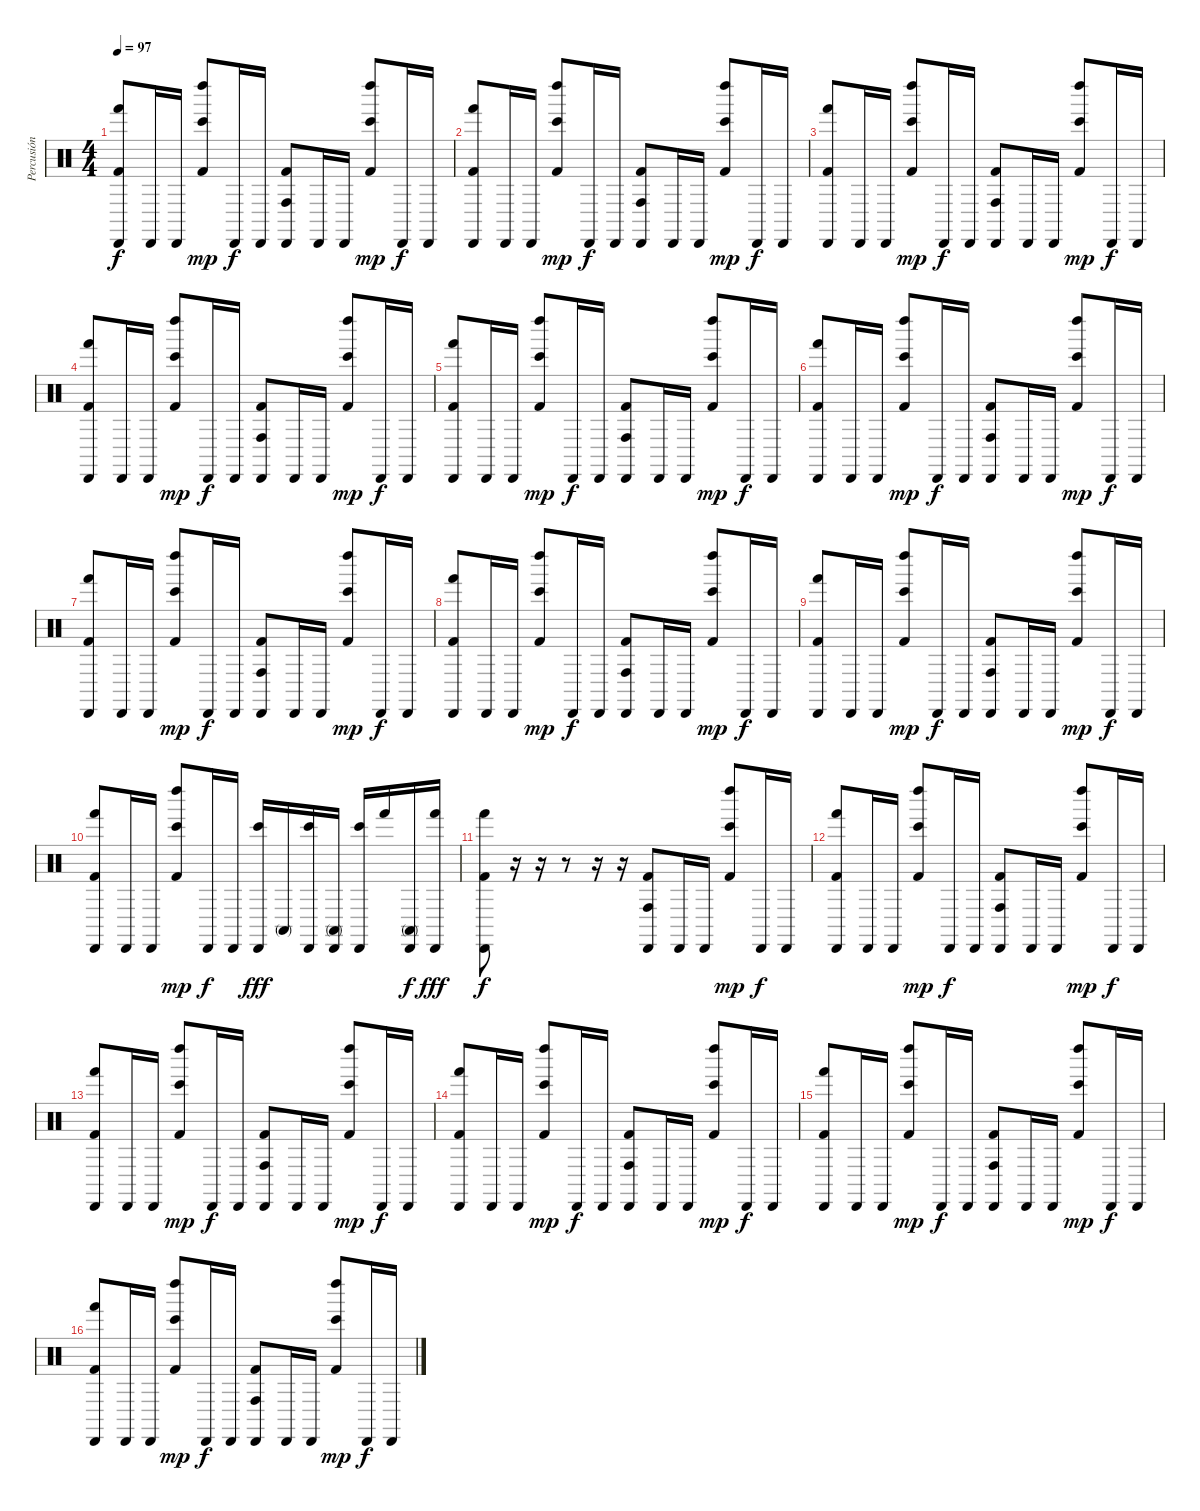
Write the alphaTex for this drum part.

\track ("Percusión" "Percusión") {instrument percussion}
\staff {score}
\articulation defaults
\ts (4 4)
\tempo 97
\clef neutral
\ks c
("Hand (hit)" "Cabasa (hit)" "Kick (hit) 2").8{dy f} "Cabasa (hit)".16 "Cabasa (hit)".16 ("Bongo High (hit)" "Kick (hit) 2" "Left Maraca (hit)").8{dy mp} "Cabasa (hit)".16{dy f} "Cabasa (hit)".16 ("Conga high (hit)" "Cabasa (hit)" "Kick (hit) 2").8 "Cabasa (hit)".16 "Cabasa (hit)".16 ("Bongo High (hit)" "Kick (hit) 2" "Left Maraca (hit)").8{dy mp} "Cabasa (hit)".16{dy f} "Cabasa (hit)".16 |
("Hand (hit)" "Cabasa (hit)" "Kick (hit) 2").8 "Cabasa (hit)".16 "Cabasa (hit)".16 ("Bongo High (hit)" "Kick (hit) 2" "Left Maraca (hit)").8{dy mp} "Cabasa (hit)".16{dy f} "Cabasa (hit)".16 ("Conga high (hit)" "Cabasa (hit)" "Kick (hit) 2").8 "Cabasa (hit)".16 "Cabasa (hit)".16 ("Bongo High (hit)" "Kick (hit) 2" "Left Maraca (hit)").8{dy mp} "Cabasa (hit)".16{dy f} "Cabasa (hit)".16 |
("Hand (hit)" "Cabasa (hit)" "Kick (hit) 2").8 "Cabasa (hit)".16 "Cabasa (hit)".16 ("Bongo High (hit)" "Kick (hit) 2" "Left Maraca (hit)").8{dy mp} "Cabasa (hit)".16{dy f} "Cabasa (hit)".16 ("Conga high (hit)" "Cabasa (hit)" "Kick (hit) 2").8 "Cabasa (hit)".16 "Cabasa (hit)".16 ("Bongo High (hit)" "Kick (hit) 2" "Left Maraca (hit)").8{dy mp} "Cabasa (hit)".16{dy f} "Cabasa (hit)".16 |
("Hand (hit)" "Cabasa (hit)" "Kick (hit) 2").8 "Cabasa (hit)".16 "Cabasa (hit)".16 ("Bongo High (hit)" "Kick (hit) 2" "Left Maraca (hit)").8{dy mp} "Cabasa (hit)".16{dy f} "Cabasa (hit)".16 ("Conga high (hit)" "Cabasa (hit)" "Kick (hit) 2").8 "Cabasa (hit)".16 "Cabasa (hit)".16 ("Bongo High (hit)" "Kick (hit) 2" "Left Maraca (hit)").8{dy mp} "Cabasa (hit)".16{dy f} "Cabasa (hit)".16 |
("Hand (hit)" "Cabasa (hit)" "Kick (hit) 2").8 "Cabasa (hit)".16 "Cabasa (hit)".16 ("Bongo High (hit)" "Kick (hit) 2" "Left Maraca (hit)").8{dy mp} "Cabasa (hit)".16{dy f} "Cabasa (hit)".16 ("Conga high (hit)" "Cabasa (hit)" "Kick (hit) 2").8 "Cabasa (hit)".16 "Cabasa (hit)".16 ("Bongo High (hit)" "Kick (hit) 2" "Left Maraca (hit)").8{dy mp} "Cabasa (hit)".16{dy f} "Cabasa (hit)".16 |
("Hand (hit)" "Cabasa (hit)" "Kick (hit) 2").8 "Cabasa (hit)".16 "Cabasa (hit)".16 ("Bongo High (hit)" "Kick (hit) 2" "Left Maraca (hit)").8{dy mp} "Cabasa (hit)".16{dy f} "Cabasa (hit)".16 ("Conga high (hit)" "Cabasa (hit)" "Kick (hit) 2").8 "Cabasa (hit)".16 "Cabasa (hit)".16 ("Bongo High (hit)" "Kick (hit) 2" "Left Maraca (hit)").8{dy mp} "Cabasa (hit)".16{dy f} "Cabasa (hit)".16 |
("Hand (hit)" "Cabasa (hit)" "Kick (hit) 2").8 "Cabasa (hit)".16 "Cabasa (hit)".16 ("Bongo High (hit)" "Kick (hit) 2" "Left Maraca (hit)").8{dy mp} "Cabasa (hit)".16{dy f} "Cabasa (hit)".16 ("Conga high (hit)" "Cabasa (hit)" "Kick (hit) 2").8 "Cabasa (hit)".16 "Cabasa (hit)".16 ("Bongo High (hit)" "Kick (hit) 2" "Left Maraca (hit)").8{dy mp} "Cabasa (hit)".16{dy f} "Cabasa (hit)".16 |
("Hand (hit)" "Cabasa (hit)" "Kick (hit) 2").8 "Cabasa (hit)".16 "Cabasa (hit)".16 ("Bongo High (hit)" "Kick (hit) 2" "Left Maraca (hit)").8{dy mp} "Cabasa (hit)".16{dy f} "Cabasa (hit)".16 ("Conga high (hit)" "Cabasa (hit)" "Kick (hit) 2").8 "Cabasa (hit)".16 "Cabasa (hit)".16 ("Bongo High (hit)" "Kick (hit) 2" "Left Maraca (hit)").8{dy mp} "Cabasa (hit)".16{dy f} "Cabasa (hit)".16 |
("Hand (hit)" "Cabasa (hit)" "Kick (hit) 2").8 "Cabasa (hit)".16 "Cabasa (hit)".16 ("Bongo High (hit)" "Kick (hit) 2" "Left Maraca (hit)").8{dy mp} "Cabasa (hit)".16{dy f} "Cabasa (hit)".16 ("Conga high (hit)" "Cabasa (hit)" "Kick (hit) 2").8 "Cabasa (hit)".16 "Cabasa (hit)".16 ("Bongo High (hit)" "Kick (hit) 2" "Left Maraca (hit)").8{dy mp} "Cabasa (hit)".16{dy f} "Cabasa (hit)".16 |
("Hand (hit)" "Cabasa (hit)" "Kick (hit) 2").8 "Cabasa (hit)".16 "Cabasa (hit)".16 ("Bongo High (hit)" "Kick (hit) 2" "Left Maraca (hit)").8{dy mp} "Cabasa (hit)".16{dy f} "Cabasa (hit)".16 ("Cabasa (hit)" "Bongo High (hit)").16{dy fff} "Conga high (mute)".16 ("Cabasa (hit)" "Bongo High (hit)").16 ("Cabasa (hit)" "Conga high (mute)").16 ("Cabasa (hit)" "Bongo High (hit)").16 "Hand (hit)".16 ("Cabasa (hit)" "Conga high (mute)").16{dy f} ("Cabasa (hit)" "Hand (hit)").16{dy fff} |
("Hand (hit)" "Cabasa (hit)" "Kick (hit) 2").8{dy f} r.16 r.16 r.8 r.16 r.16 ("Conga high (hit)" "Cabasa (hit)" "Kick (hit) 2").8 "Cabasa (hit)".16 "Cabasa (hit)".16 ("Bongo High (hit)" "Kick (hit) 2" "Left Maraca (hit)").8{dy mp} "Cabasa (hit)".16{dy f} "Cabasa (hit)".16 |
("Hand (hit)" "Cabasa (hit)" "Kick (hit) 2").8 "Cabasa (hit)".16 "Cabasa (hit)".16 ("Bongo High (hit)" "Kick (hit) 2" "Left Maraca (hit)").8{dy mp} "Cabasa (hit)".16{dy f} "Cabasa (hit)".16 ("Conga high (hit)" "Cabasa (hit)" "Kick (hit) 2").8 "Cabasa (hit)".16 "Cabasa (hit)".16 ("Bongo High (hit)" "Kick (hit) 2" "Left Maraca (hit)").8{dy mp} "Cabasa (hit)".16{dy f} "Cabasa (hit)".16 |
("Hand (hit)" "Cabasa (hit)" "Kick (hit) 2").8 "Cabasa (hit)".16 "Cabasa (hit)".16 ("Bongo High (hit)" "Kick (hit) 2" "Left Maraca (hit)").8{dy mp} "Cabasa (hit)".16{dy f} "Cabasa (hit)".16 ("Conga high (hit)" "Cabasa (hit)" "Kick (hit) 2").8 "Cabasa (hit)".16 "Cabasa (hit)".16 ("Bongo High (hit)" "Kick (hit) 2" "Left Maraca (hit)").8{dy mp} "Cabasa (hit)".16{dy f} "Cabasa (hit)".16 |
("Hand (hit)" "Cabasa (hit)" "Kick (hit) 2").8 "Cabasa (hit)".16 "Cabasa (hit)".16 ("Bongo High (hit)" "Kick (hit) 2" "Left Maraca (hit)").8{dy mp} "Cabasa (hit)".16{dy f} "Cabasa (hit)".16 ("Conga high (hit)" "Cabasa (hit)" "Kick (hit) 2").8 "Cabasa (hit)".16 "Cabasa (hit)".16 ("Bongo High (hit)" "Kick (hit) 2" "Left Maraca (hit)").8{dy mp} "Cabasa (hit)".16{dy f} "Cabasa (hit)".16 |
("Hand (hit)" "Cabasa (hit)" "Kick (hit) 2").8 "Cabasa (hit)".16 "Cabasa (hit)".16 ("Bongo High (hit)" "Kick (hit) 2" "Left Maraca (hit)").8{dy mp} "Cabasa (hit)".16{dy f} "Cabasa (hit)".16 ("Conga high (hit)" "Cabasa (hit)" "Kick (hit) 2").8 "Cabasa (hit)".16 "Cabasa (hit)".16 ("Bongo High (hit)" "Kick (hit) 2" "Left Maraca (hit)").8{dy mp} "Cabasa (hit)".16{dy f} "Cabasa (hit)".16 |
("Hand (hit)" "Cabasa (hit)" "Kick (hit) 2").8 "Cabasa (hit)".16 "Cabasa (hit)".16 ("Bongo High (hit)" "Kick (hit) 2" "Left Maraca (hit)").8{dy mp} "Cabasa (hit)".16{dy f} "Cabasa (hit)".16 ("Conga high (hit)" "Cabasa (hit)" "Kick (hit) 2").8 "Cabasa (hit)".16 "Cabasa (hit)".16 ("Bongo High (hit)" "Kick (hit) 2" "Left Maraca (hit)").8{dy mp} "Cabasa (hit)".16{dy f} "Cabasa (hit)".16
